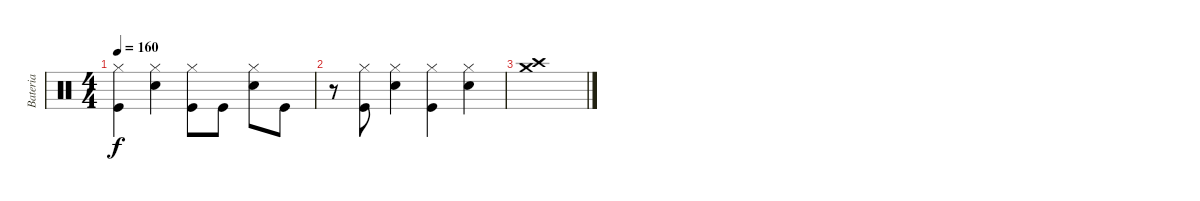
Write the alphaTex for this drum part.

\track ("Bateria" "Bateria") {instrument percussion}
\staff {score}
\articulation defaults
\ts (4 4)
\tempo 160
\clef neutral
\ks c
("Hi-Hat (closed)" "Kick (hit)").4{dy f} ("Hi-Hat (closed)" "Snare (hit) 2").4 ("Hi-Hat (closed)" "Kick (hit)").8 "Kick (hit)".8 ("Hi-Hat (closed)" "Snare (hit) 2").8 "Kick (hit)".8 |
r.8 ("Hi-Hat (closed)" "Kick (hit)").8 ("Hi-Hat (closed)" "Snare (hit) 2").4 ("Hi-Hat (closed)" "Kick (hit)").4 ("Hi-Hat (closed)" "Snare (hit) 2").4 |
("Crash medium (hit)" "Crash high (hit)").1
